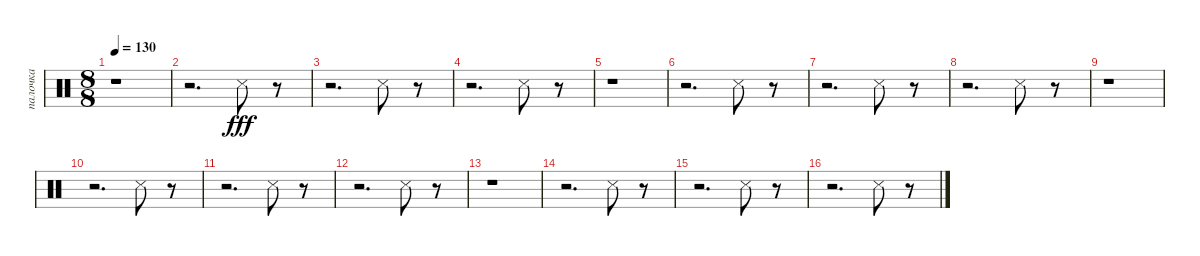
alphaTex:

\track ("палочка" "палочка") {instrument percussion}
\staff {score}
\articulation defaults
\ts (8 8)
\tempo 130
\clef neutral
\ks c
r.1{dy fff} |
r.2{d} "Snare (side stick) 3".8 r.8 |
r.2{d} "Snare (side stick) 3".8 r.8 |
r.2{d} "Snare (side stick) 3".8 r.8 |
r.1 |
r.2{d} "Snare (side stick) 3".8 r.8 |
r.2{d} "Snare (side stick) 3".8 r.8 |
r.2{d} "Snare (side stick) 3".8 r.8 |
r.1 |
r.2{d} "Snare (side stick) 3".8 r.8 |
r.2{d} "Snare (side stick) 3".8 r.8 |
r.2{d} "Snare (side stick) 3".8 r.8 |
r.1 |
r.2{d} "Snare (side stick) 3".8 r.8 |
r.2{d} "Snare (side stick) 3".8 r.8 |
r.2{d} "Snare (side stick) 3".8 r.8
